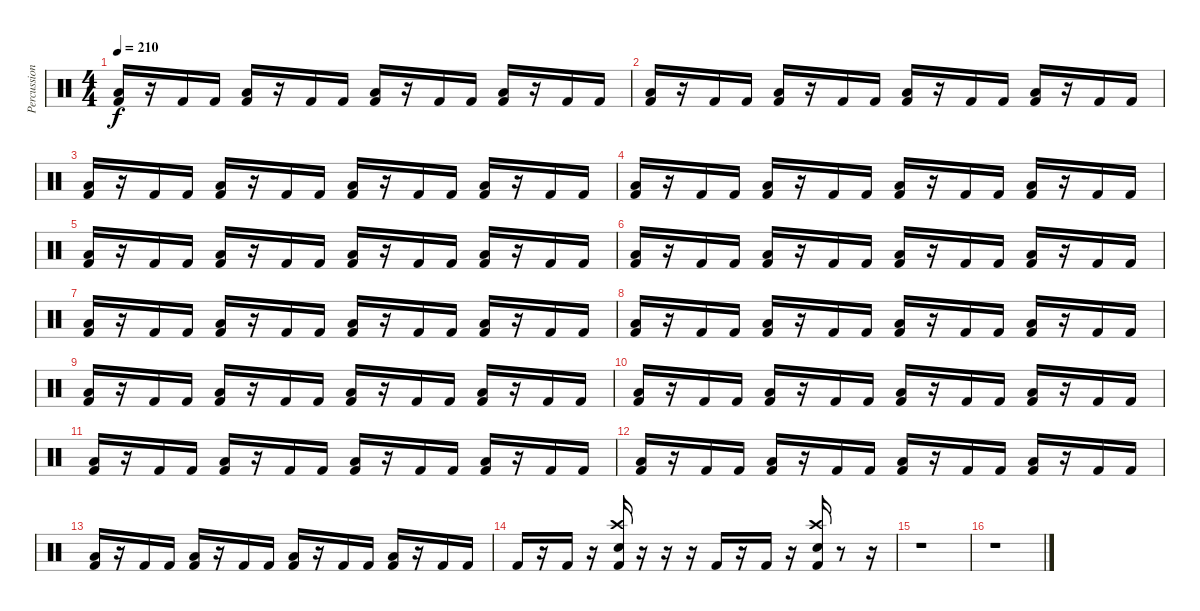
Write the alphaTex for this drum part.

\track ("Percussion" "Percussion") {instrument percussion}
\staff {score}
\articulation defaults
\ts (4 4)
\tempo 210
\clef neutral
\ks c
("Low Floor Tom (hit)" "Kick (hit) 2").16{dy f} r.16 "Kick (hit) 2".16 "Kick (hit) 2".16 ("Low Floor Tom (hit)" "Kick (hit) 2").16 r.16 "Kick (hit) 2".16 "Kick (hit) 2".16 ("Low Floor Tom (hit)" "Kick (hit) 2").16 r.16 "Kick (hit) 2".16 "Kick (hit) 2".16 ("Low Floor Tom (hit)" "Kick (hit) 2").16 r.16 "Kick (hit) 2".16 "Kick (hit) 2".16 |
("Low Floor Tom (hit)" "Kick (hit) 2").16 r.16 "Kick (hit) 2".16 "Kick (hit) 2".16 ("Low Floor Tom (hit)" "Kick (hit) 2").16 r.16 "Kick (hit) 2".16 "Kick (hit) 2".16 ("Low Floor Tom (hit)" "Kick (hit) 2").16 r.16 "Kick (hit) 2".16 "Kick (hit) 2".16 ("Low Floor Tom (hit)" "Kick (hit) 2").16 r.16 "Kick (hit) 2".16 "Kick (hit) 2".16 |
("Low Floor Tom (hit)" "Kick (hit) 2").16 r.16 "Kick (hit) 2".16 "Kick (hit) 2".16 ("Low Floor Tom (hit)" "Kick (hit) 2").16 r.16 "Kick (hit) 2".16 "Kick (hit) 2".16 ("Low Floor Tom (hit)" "Kick (hit) 2").16 r.16 "Kick (hit) 2".16 "Kick (hit) 2".16 ("Low Floor Tom (hit)" "Kick (hit) 2").16 r.16 "Kick (hit) 2".16 "Kick (hit) 2".16 |
("Low Floor Tom (hit)" "Kick (hit) 2").16 r.16 "Kick (hit) 2".16 "Kick (hit) 2".16 ("Low Floor Tom (hit)" "Kick (hit) 2").16 r.16 "Kick (hit) 2".16 "Kick (hit) 2".16 ("Low Floor Tom (hit)" "Kick (hit) 2").16 r.16 "Kick (hit) 2".16 "Kick (hit) 2".16 ("Low Floor Tom (hit)" "Kick (hit) 2").16 r.16 "Kick (hit) 2".16 "Kick (hit) 2".16 |
("Low Floor Tom (hit)" "Kick (hit) 2").16 r.16 "Kick (hit) 2".16 "Kick (hit) 2".16 ("Low Floor Tom (hit)" "Kick (hit) 2").16 r.16 "Kick (hit) 2".16 "Kick (hit) 2".16 ("Low Floor Tom (hit)" "Kick (hit) 2").16 r.16 "Kick (hit) 2".16 "Kick (hit) 2".16 ("Low Floor Tom (hit)" "Kick (hit) 2").16 r.16 "Kick (hit) 2".16 "Kick (hit) 2".16 |
("Low Floor Tom (hit)" "Kick (hit) 2").16 r.16 "Kick (hit) 2".16 "Kick (hit) 2".16 ("Low Floor Tom (hit)" "Kick (hit) 2").16 r.16 "Kick (hit) 2".16 "Kick (hit) 2".16 ("Low Floor Tom (hit)" "Kick (hit) 2").16 r.16 "Kick (hit) 2".16 "Kick (hit) 2".16 ("Low Floor Tom (hit)" "Kick (hit) 2").16 r.16 "Kick (hit) 2".16 "Kick (hit) 2".16 |
("Low Floor Tom (hit)" "Kick (hit) 2").16 r.16 "Kick (hit) 2".16 "Kick (hit) 2".16 ("Low Floor Tom (hit)" "Kick (hit) 2").16 r.16 "Kick (hit) 2".16 "Kick (hit) 2".16 ("Low Floor Tom (hit)" "Kick (hit) 2").16 r.16 "Kick (hit) 2".16 "Kick (hit) 2".16 ("Low Floor Tom (hit)" "Kick (hit) 2").16 r.16 "Kick (hit) 2".16 "Kick (hit) 2".16 |
("Low Floor Tom (hit)" "Kick (hit) 2").16 r.16 "Kick (hit) 2".16 "Kick (hit) 2".16 ("Low Floor Tom (hit)" "Kick (hit) 2").16 r.16 "Kick (hit) 2".16 "Kick (hit) 2".16 ("Low Floor Tom (hit)" "Kick (hit) 2").16 r.16 "Kick (hit) 2".16 "Kick (hit) 2".16 ("Low Floor Tom (hit)" "Kick (hit) 2").16 r.16 "Kick (hit) 2".16 "Kick (hit) 2".16 |
("Low Floor Tom (hit)" "Kick (hit) 2").16 r.16 "Kick (hit) 2".16 "Kick (hit) 2".16 ("Low Floor Tom (hit)" "Kick (hit) 2").16 r.16 "Kick (hit) 2".16 "Kick (hit) 2".16 ("Low Floor Tom (hit)" "Kick (hit) 2").16 r.16 "Kick (hit) 2".16 "Kick (hit) 2".16 ("Low Floor Tom (hit)" "Kick (hit) 2").16 r.16 "Kick (hit) 2".16 "Kick (hit) 2".16 |
("Low Floor Tom (hit)" "Kick (hit) 2").16 r.16 "Kick (hit) 2".16 "Kick (hit) 2".16 ("Low Floor Tom (hit)" "Kick (hit) 2").16 r.16 "Kick (hit) 2".16 "Kick (hit) 2".16 ("Low Floor Tom (hit)" "Kick (hit) 2").16 r.16 "Kick (hit) 2".16 "Kick (hit) 2".16 ("Low Floor Tom (hit)" "Kick (hit) 2").16 r.16 "Kick (hit) 2".16 "Kick (hit) 2".16 |
("Low Floor Tom (hit)" "Kick (hit) 2").16 r.16 "Kick (hit) 2".16 "Kick (hit) 2".16 ("Low Floor Tom (hit)" "Kick (hit) 2").16 r.16 "Kick (hit) 2".16 "Kick (hit) 2".16 ("Low Floor Tom (hit)" "Kick (hit) 2").16 r.16 "Kick (hit) 2".16 "Kick (hit) 2".16 ("Low Floor Tom (hit)" "Kick (hit) 2").16 r.16 "Kick (hit) 2".16 "Kick (hit) 2".16 |
("Low Floor Tom (hit)" "Kick (hit) 2").16 r.16 "Kick (hit) 2".16 "Kick (hit) 2".16 ("Low Floor Tom (hit)" "Kick (hit) 2").16 r.16 "Kick (hit) 2".16 "Kick (hit) 2".16 ("Low Floor Tom (hit)" "Kick (hit) 2").16 r.16 "Kick (hit) 2".16 "Kick (hit) 2".16 ("Low Floor Tom (hit)" "Kick (hit) 2").16 r.16 "Kick (hit) 2".16 "Kick (hit) 2".16 |
("Low Floor Tom (hit)" "Kick (hit) 2").16 r.16 "Kick (hit) 2".16 "Kick (hit) 2".16 ("Low Floor Tom (hit)" "Kick (hit) 2").16 r.16 "Kick (hit) 2".16 "Kick (hit) 2".16 ("Low Floor Tom (hit)" "Kick (hit) 2").16 r.16 "Kick (hit) 2".16 "Kick (hit) 2".16 ("Low Floor Tom (hit)" "Kick (hit) 2").16 r.16 "Kick (hit) 2".16 "Kick (hit) 2".16 |
"Kick (hit) 2".16 r.16 "Kick (hit) 2".16 r.16 ("Crash high (hit)" "Electric Snare (hit)" "Kick (hit) 2").16 r.16 r.16 r.16 "Kick (hit) 2".16 r.16 "Kick (hit) 2".16 r.16 ("Crash high (hit)" "Electric Snare (hit)" "Kick (hit) 2").16 r.8 r.16 |
r.1 |
r.1
